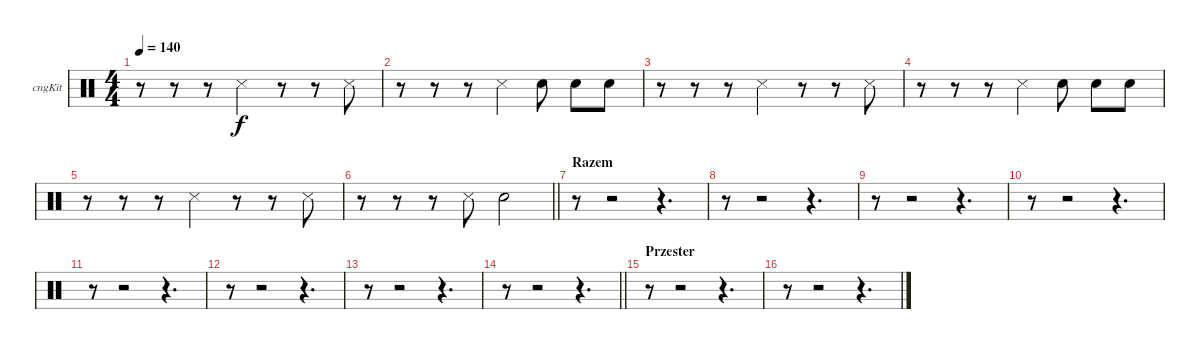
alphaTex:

\bracketExtendMode groupsimilarinstruments
\firstSystemTrackNameOrientation horizontal
\otherSystemsTrackNameOrientation horizontal
\track ("Congas" "cngKit") {instrument percussion}
\staff {score}
\articulation defaults
\ts (4 4)
\tempo 140
\clef neutral
\ks c
r.8{dy f} r.8 r.8 "Snare (side stick) 3".4 r.8 r.8 "Snare (side stick) 3".8 |
r.8 r.8 r.8 "Snare (side stick) 3".4 "Snare (hit) 2".8 "Snare (hit) 2".8 "Snare (hit) 2".8 |
r.8 r.8 r.8 "Snare (side stick) 3".4 r.8 r.8 "Snare (side stick) 3".8 |
r.8 r.8 r.8 "Snare (side stick) 3".4 "Snare (hit) 2".8 "Snare (hit) 2".8 "Snare (hit) 2".8 |
r.8 r.8 r.8 "Snare (side stick) 3".4 r.8 r.8 "Snare (side stick) 3".8 |
\barLineRight lightlight
r.8 r.8 r.8 "Snare (side stick) 3".8 "Snare (hit) 2".2 |
\section ("" "Razem")
r.8 r.2 r.4{d} |
r.8 r.2 r.4{d} |
r.8 r.2 r.4{d} |
r.8 r.2 r.4{d} |
r.8 r.2 r.4{d} |
r.8 r.2 r.4{d} |
r.8 r.2 r.4{d} |
\barLineRight lightlight
r.8 r.2 r.4{d} |
\section ("" "Przester")
r.8 r.2 r.4{d} |
r.8 r.2 r.4{d}
